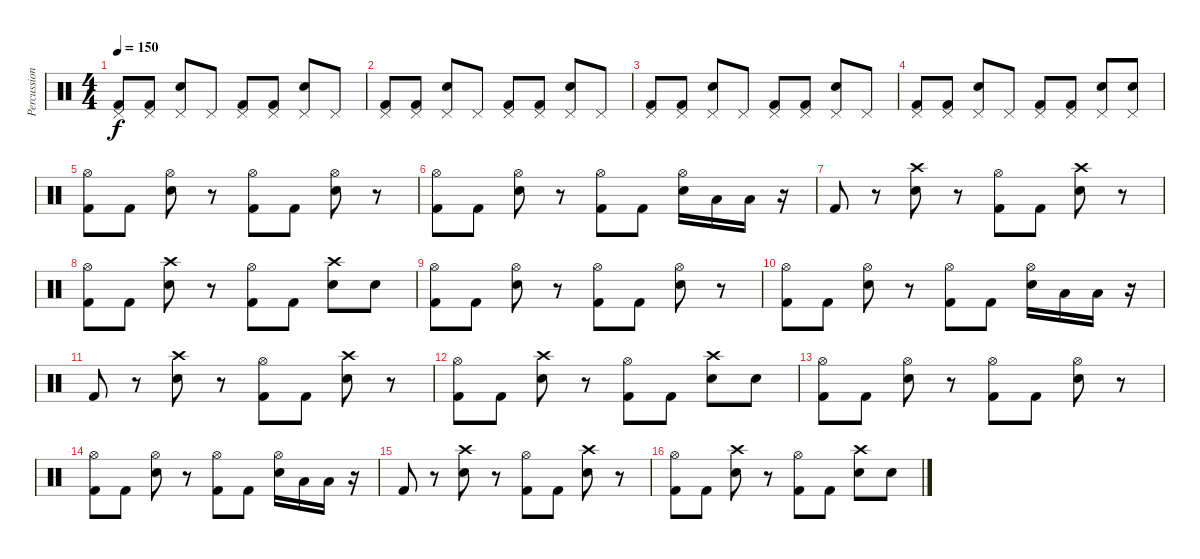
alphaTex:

\track ("Percussion" "Percussion") {instrument percussion}
\staff {score}
\articulation defaults
\ts (4 4)
\tempo 150
\clef neutral
\ks c
("Pedal Hi-Hat (hit)" "Kick (hit) 2").8{dy f} ("Pedal Hi-Hat (hit)" "Kick (hit) 2").8 ("Pedal Hi-Hat (hit)" "Snare (hit) 2").8 "Pedal Hi-Hat (hit)".8 ("Pedal Hi-Hat (hit)" "Kick (hit) 2").8 ("Pedal Hi-Hat (hit)" "Kick (hit) 2").8 ("Pedal Hi-Hat (hit)" "Snare (hit) 2").8 "Pedal Hi-Hat (hit)".8 |
("Pedal Hi-Hat (hit)" "Kick (hit) 2").8 ("Pedal Hi-Hat (hit)" "Kick (hit) 2").8 ("Pedal Hi-Hat (hit)" "Snare (hit) 2").8 "Pedal Hi-Hat (hit)".8 ("Pedal Hi-Hat (hit)" "Kick (hit) 2").8 ("Pedal Hi-Hat (hit)" "Kick (hit) 2").8 ("Pedal Hi-Hat (hit)" "Snare (hit) 2").8 "Pedal Hi-Hat (hit)".8 |
("Pedal Hi-Hat (hit)" "Kick (hit) 2").8 ("Pedal Hi-Hat (hit)" "Kick (hit) 2").8 ("Pedal Hi-Hat (hit)" "Snare (hit) 2").8 "Pedal Hi-Hat (hit)".8 ("Pedal Hi-Hat (hit)" "Kick (hit) 2").8 ("Pedal Hi-Hat (hit)" "Kick (hit) 2").8 ("Pedal Hi-Hat (hit)" "Snare (hit) 2").8 "Pedal Hi-Hat (hit)".8 |
("Pedal Hi-Hat (hit)" "Kick (hit) 2").8 ("Pedal Hi-Hat (hit)" "Kick (hit) 2").8 ("Pedal Hi-Hat (hit)" "Snare (hit) 2").8 "Pedal Hi-Hat (hit)".8 ("Pedal Hi-Hat (hit)" "Kick (hit) 2").8 ("Pedal Hi-Hat (hit)" "Kick (hit) 2").8 ("Pedal Hi-Hat (hit)" "Snare (hit) 2").8 ("Pedal Hi-Hat (hit)" "Snare (hit) 2").8 |
("Hi-Hat (open)" "Kick (hit) 2").8{volume 14} "Kick (hit) 2".8 ("Hi-Hat (open)" "Snare (hit) 2").8 r.8 ("Hi-Hat (open)" "Kick (hit) 2").8 "Kick (hit) 2".8 ("Hi-Hat (open)" "Snare (hit) 2").8 r.8 |
("Hi-Hat (open)" "Kick (hit) 2").8 "Kick (hit) 2".8 ("Hi-Hat (open)" "Snare (hit) 2").8 r.8 ("Hi-Hat (open)" "Kick (hit) 2").8 "Kick (hit) 2".8 ("Hi-Hat (open)" "Snare (hit) 2").16 "Low Tom (hit)".16 "Low Tom (hit)".16 r.16 |
"Kick (hit) 2".8 r.8 ("Crash high (hit)" "Snare (hit) 2").8 r.8 ("Hi-Hat (open)" "Kick (hit) 2").8 "Kick (hit) 2".8 ("Crash high (hit)" "Snare (hit) 2").8 r.8 |
("Hi-Hat (open)" "Kick (hit) 2").8 "Kick (hit) 2".8 ("Crash high (hit)" "Snare (hit) 2").8 r.8 ("Hi-Hat (open)" "Kick (hit) 2").8 "Kick (hit) 2".8 ("Crash high (hit)" "Snare (hit) 2").8 "Snare (hit) 2".8 |
("Hi-Hat (open)" "Kick (hit) 2").8 "Kick (hit) 2".8 ("Hi-Hat (open)" "Snare (hit) 2").8 r.8 ("Hi-Hat (open)" "Kick (hit) 2").8 "Kick (hit) 2".8 ("Hi-Hat (open)" "Snare (hit) 2").8 r.8 |
("Hi-Hat (open)" "Kick (hit) 2").8 "Kick (hit) 2".8 ("Hi-Hat (open)" "Snare (hit) 2").8 r.8 ("Hi-Hat (open)" "Kick (hit) 2").8 "Kick (hit) 2".8 ("Hi-Hat (open)" "Snare (hit) 2").16 "Low Tom (hit)".16 "Low Tom (hit)".16 r.16 |
"Kick (hit) 2".8 r.8 ("Crash high (hit)" "Snare (hit) 2").8 r.8 ("Hi-Hat (open)" "Kick (hit) 2").8 "Kick (hit) 2".8 ("Crash high (hit)" "Snare (hit) 2").8 r.8 |
("Hi-Hat (open)" "Kick (hit) 2").8 "Kick (hit) 2".8 ("Crash high (hit)" "Snare (hit) 2").8 r.8 ("Hi-Hat (open)" "Kick (hit) 2").8 "Kick (hit) 2".8 ("Crash high (hit)" "Snare (hit) 2").8 "Snare (hit) 2".8 |
("Hi-Hat (open)" "Kick (hit) 2").8{volume 14} "Kick (hit) 2".8 ("Hi-Hat (open)" "Snare (hit) 2").8 r.8 ("Hi-Hat (open)" "Kick (hit) 2").8 "Kick (hit) 2".8 ("Hi-Hat (open)" "Snare (hit) 2").8 r.8 |
("Hi-Hat (open)" "Kick (hit) 2").8 "Kick (hit) 2".8 ("Hi-Hat (open)" "Snare (hit) 2").8 r.8 ("Hi-Hat (open)" "Kick (hit) 2").8 "Kick (hit) 2".8 ("Hi-Hat (open)" "Snare (hit) 2").16 "Low Tom (hit)".16 "Low Tom (hit)".16 r.16 |
"Kick (hit) 2".8 r.8 ("Crash high (hit)" "Snare (hit) 2").8 r.8 ("Hi-Hat (open)" "Kick (hit) 2").8 "Kick (hit) 2".8 ("Crash high (hit)" "Snare (hit) 2").8 r.8 |
("Hi-Hat (open)" "Kick (hit) 2").8 "Kick (hit) 2".8 ("Crash high (hit)" "Snare (hit) 2").8 r.8 ("Hi-Hat (open)" "Kick (hit) 2").8 "Kick (hit) 2".8 ("Crash high (hit)" "Snare (hit) 2").8 "Snare (hit) 2".8
